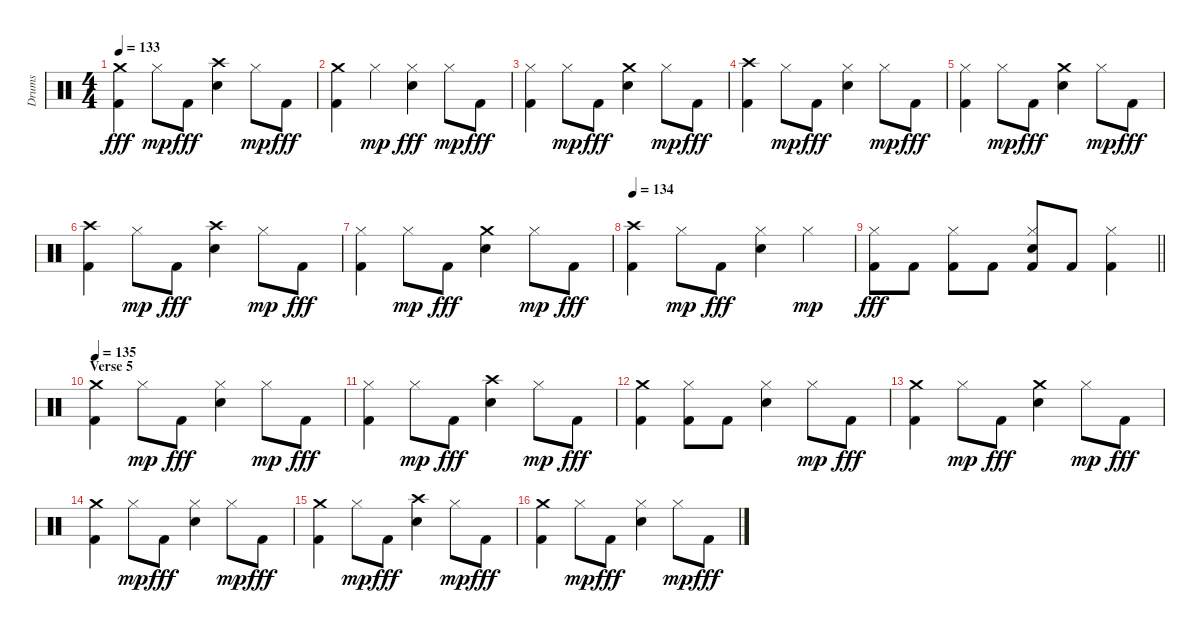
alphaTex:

\track ("Drums" "Drums") {instrument percussion}
\staff {score}
\articulation defaults
\ts (4 4)
\tempo 133
\clef neutral
\ks c
("Crash medium (hit)" "Kick (hit) 2").4{dy fff} "Hi-Hat (closed)".8{dy mp} "Kick (hit) 2".8{dy fff} ("Crash high (hit)" "Electric Snare (hit)").4 "Hi-Hat (closed)".8{dy mp} "Kick (hit) 2".8{dy fff} |
("Crash medium (hit)" "Kick (hit) 2").4 "Hi-Hat (closed)".4{dy mp} ("Hi-Hat (closed)" "Electric Snare (hit)").4{dy fff} "Hi-Hat (closed)".8{dy mp} "Kick (hit) 2".8{dy fff} |
("Hi-Hat (closed)" "Kick (hit) 2").4 "Hi-Hat (closed)".8{dy mp} "Kick (hit) 2".8{dy fff} ("Crash medium (hit)" "Electric Snare (hit)").4 "Hi-Hat (closed)".8{dy mp} "Kick (hit) 2".8{dy fff} |
("Crash high (hit)" "Kick (hit) 2").4 "Hi-Hat (closed)".8{dy mp} "Kick (hit) 2".8{dy fff} ("Hi-Hat (closed)" "Electric Snare (hit)").4 "Hi-Hat (closed)".8{dy mp} "Kick (hit) 2".8{dy fff} |
("Hi-Hat (closed)" "Kick (hit) 2").4 "Hi-Hat (closed)".8{dy mp} "Kick (hit) 2".8{dy fff} ("Crash medium (hit)" "Electric Snare (hit)").4 "Hi-Hat (closed)".8{dy mp} "Kick (hit) 2".8{dy fff} |
("Crash high (hit)" "Kick (hit) 2").4 "Hi-Hat (closed)".8{dy mp} "Kick (hit) 2".8{dy fff} ("Crash high (hit)" "Electric Snare (hit)").4 "Hi-Hat (closed)".8{dy mp} "Kick (hit) 2".8{dy fff} |
("Hi-Hat (closed)" "Kick (hit) 2").4 "Hi-Hat (closed)".8{dy mp} "Kick (hit) 2".8{dy fff} ("Crash medium (hit)" "Electric Snare (hit)").4 "Hi-Hat (closed)".8{dy mp} "Kick (hit) 2".8{dy fff} |
\tempo 134
("Crash high (hit)" "Kick (hit) 2").4 "Hi-Hat (closed)".8{dy mp} "Kick (hit) 2".8{dy fff} ("Hi-Hat (closed)" "Electric Snare (hit)").4 "Hi-Hat (closed)".4{dy mp} |
\barLineRight lightlight
("Hi-Hat (closed)" "Kick (hit) 2").8{dy fff} "Kick (hit) 2".8 ("Hi-Hat (closed)" "Kick (hit) 2").8 "Kick (hit) 2".8 ("Hi-Hat (closed)" "Electric Snare (hit)" "Kick (hit) 2").8 "Kick (hit) 2".8 ("Hi-Hat (closed)" "Kick (hit) 2").4 |
\section ("" "Verse 5")
\tempo 135
("Crash medium (hit)" "Kick (hit) 2").4 "Hi-Hat (closed)".8{dy mp} "Kick (hit) 2".8{dy fff} ("Hi-Hat (closed)" "Electric Snare (hit)").4 "Hi-Hat (closed)".8{dy mp} "Kick (hit) 2".8{dy fff} |
("Hi-Hat (closed)" "Kick (hit) 2").4 "Hi-Hat (closed)".8{dy mp} "Kick (hit) 2".8{dy fff} ("Crash high (hit)" "Electric Snare (hit)").4 "Hi-Hat (closed)".8{dy mp} "Kick (hit) 2".8{dy fff} |
("Crash medium (hit)" "Kick (hit) 2").4 ("Hi-Hat (closed)" "Kick (hit) 2").8 "Kick (hit) 2".8 ("Hi-Hat (closed)" "Electric Snare (hit)").4 "Hi-Hat (closed)".8{dy mp} "Kick (hit) 2".8{dy fff} |
("Crash medium (hit)" "Kick (hit) 2").4 "Hi-Hat (closed)".8{dy mp} "Kick (hit) 2".8{dy fff} ("Crash medium (hit)" "Electric Snare (hit)").4 "Hi-Hat (closed)".8{dy mp} "Kick (hit) 2".8{dy fff} |
("Crash medium (hit)" "Kick (hit) 2").4 "Hi-Hat (closed)".8{dy mp} "Kick (hit) 2".8{dy fff} ("Hi-Hat (closed)" "Electric Snare (hit)").4 "Hi-Hat (closed)".8{dy mp} "Kick (hit) 2".8{dy fff} |
("Crash medium (hit)" "Kick (hit) 2").4 "Hi-Hat (closed)".8{dy mp} "Kick (hit) 2".8{dy fff} ("Crash high (hit)" "Electric Snare (hit)").4 "Hi-Hat (closed)".8{dy mp} "Kick (hit) 2".8{dy fff} |
("Crash medium (hit)" "Kick (hit) 2").4 "Hi-Hat (closed)".8{dy mp} "Kick (hit) 2".8{dy fff} ("Hi-Hat (closed)" "Electric Snare (hit)").4 "Hi-Hat (closed)".8{dy mp} "Kick (hit) 2".8{dy fff}
